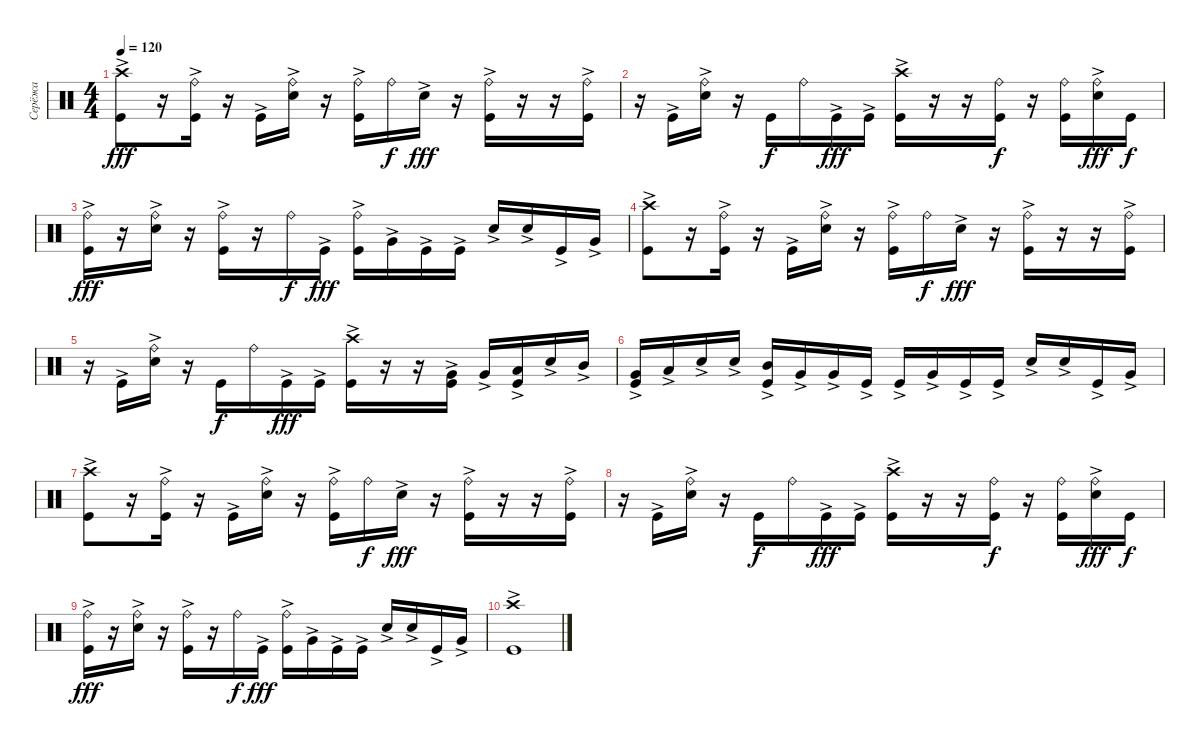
\track ("Серёжа" "Серёжа") {instrument percussion}
\staff {score}
\articulation defaults
\ts (4 4)
\tempo 120
\clef neutral
\ks c
("Crash high (hit)"{ac} "Kick (hit)"{ac}).8{dy fff} r.16 ("Ride (bell)" "Kick (hit)"{ac}).16 r.16 "Kick (hit)"{ac}.16 ("Ride (bell)" "Snare (hit) 2"{ac}).16 r.16 ("Ride (bell)" "Kick (hit)"{ac}).16 "Ride (bell)".16{dy f} "Snare (hit) 2"{ac}.16{dy fff} r.16 ("Ride (bell)" "Kick (hit)"{ac}).16 r.16 r.16 ("Ride (bell)" "Kick (hit)"{ac}).16 |
r.16 "Kick (hit)"{ac}.16 ("Ride (bell)" "Snare (hit) 2"{ac}).16 r.16 "Kick (hit)".16{dy f} "Ride (bell)".16 "Kick (hit)"{ac}.16{dy fff} "Kick (hit)"{ac}.16 ("Crash high (hit)"{ac} "Kick (hit)"{ac}).16 r.16 r.16 ("Ride (bell)" "Kick (hit)").16{dy f} r.16 ("Ride (bell)" "Kick (hit)").16 ("Ride (bell)" "Snare (hit) 2"{ac}).16{dy fff} "Kick (hit)".16{dy f} |
("Ride (bell)" "Kick (hit)"{ac}).16{dy fff} r.16 ("Ride (bell)" "Snare (hit) 2"{ac}).16 r.16 ("Ride (bell)" "Kick (hit)"{ac}).16 r.16 "Ride (bell)".16{dy f} "Kick (hit)"{ac}.16{dy fff} ("Ride (bell)" "Kick (hit)"{ac}).16 "Very Low Tom (hit)"{ac}.16 "Kick (hit)"{ac}.16 "Kick (hit)"{ac}.16 "Snare (hit) 2"{ac}.16 "Snare (hit) 2"{ac}.16 "Kick (hit)"{ac}.16 "Very Low Tom (hit)"{ac}.16 |
("Crash high (hit)"{ac} "Kick (hit)"{ac}).8 r.16 ("Ride (bell)" "Kick (hit)"{ac}).16 r.16 "Kick (hit)"{ac}.16 ("Ride (bell)" "Snare (hit) 2"{ac}).16 r.16 ("Ride (bell)" "Kick (hit)"{ac}).16 "Ride (bell)".16{dy f} "Snare (hit) 2"{ac}.16{dy fff} r.16 ("Ride (bell)" "Kick (hit)"{ac}).16 r.16 r.16 ("Ride (bell)" "Kick (hit)"{ac}).16 |
r.16 "Kick (hit)"{ac}.16 ("Ride (bell)" "Snare (hit) 2"{ac}).16 r.16 "Kick (hit)".16{dy f} "Ride (bell)".16 "Kick (hit)"{ac}.16{dy fff} "Kick (hit)"{ac}.16 ("Crash high (hit)"{ac} "Kick (hit)"{ac}).16 r.16 r.16 ("Kick (hit)" "Very Low Tom (hit)"{ac}).16 "Very Low Tom (hit)"{ac}.16 ("Kick (hit)" "Low Tom (hit)"{ac}).16 "Snare (hit) 2"{ac}.16 "Mid Tom (hit)"{ac}.16 |
("Kick (hit)"{ac} "Very Low Tom (hit)"{ac}).16 "Low Tom (hit)"{ac}.16 "Snare (hit) 2"{ac}.16 "Snare (hit) 2"{ac}.16 ("Kick (hit)"{ac} "Mid Tom (hit)"{ac}).16 "Very Low Tom (hit)"{ac}.16 "Very Low Tom (hit)"{ac}.16 "Kick (hit)"{ac}.16 "Kick (hit)"{ac}.16 "Very Low Tom (hit)"{ac}.16 "Kick (hit)"{ac}.16 "Kick (hit)"{ac}.16 "Snare (hit) 2"{ac}.16 "Snare (hit) 2"{ac}.16 "Kick (hit)"{ac}.16 "Very Low Tom (hit)"{ac}.16 |
("Crash high (hit)"{ac} "Kick (hit)"{ac}).8 r.16 ("Ride (bell)" "Kick (hit)"{ac}).16 r.16 "Kick (hit)"{ac}.16 ("Ride (bell)" "Snare (hit) 2"{ac}).16 r.16 ("Ride (bell)" "Kick (hit)"{ac}).16 "Ride (bell)".16{dy f} "Snare (hit) 2"{ac}.16{dy fff} r.16 ("Ride (bell)" "Kick (hit)"{ac}).16 r.16 r.16 ("Ride (bell)" "Kick (hit)"{ac}).16 |
r.16 "Kick (hit)"{ac}.16 ("Ride (bell)" "Snare (hit) 2"{ac}).16 r.16 "Kick (hit)".16{dy f} "Ride (bell)".16 "Kick (hit)"{ac}.16{dy fff} "Kick (hit)"{ac}.16 ("Crash high (hit)"{ac} "Kick (hit)"{ac}).16 r.16 r.16 ("Ride (bell)" "Kick (hit)").16{dy f} r.16 ("Ride (bell)" "Kick (hit)").16 ("Ride (bell)" "Snare (hit) 2"{ac}).16{dy fff} "Kick (hit)".16{dy f} |
("Ride (bell)" "Kick (hit)"{ac}).16{dy fff} r.16 ("Ride (bell)" "Snare (hit) 2"{ac}).16 r.16 ("Ride (bell)" "Kick (hit)"{ac}).16 r.16 "Ride (bell)".16{dy f} "Kick (hit)"{ac}.16{dy fff} ("Ride (bell)" "Kick (hit)"{ac}).16 "Very Low Tom (hit)"{ac}.16 "Kick (hit)"{ac}.16 "Kick (hit)"{ac}.16 "Snare (hit) 2"{ac}.16 "Snare (hit) 2"{ac}.16 "Kick (hit)"{ac}.16 "Very Low Tom (hit)"{ac}.16 |
("Crash high (hit)"{ac} "Kick (hit)"{ac}).1
